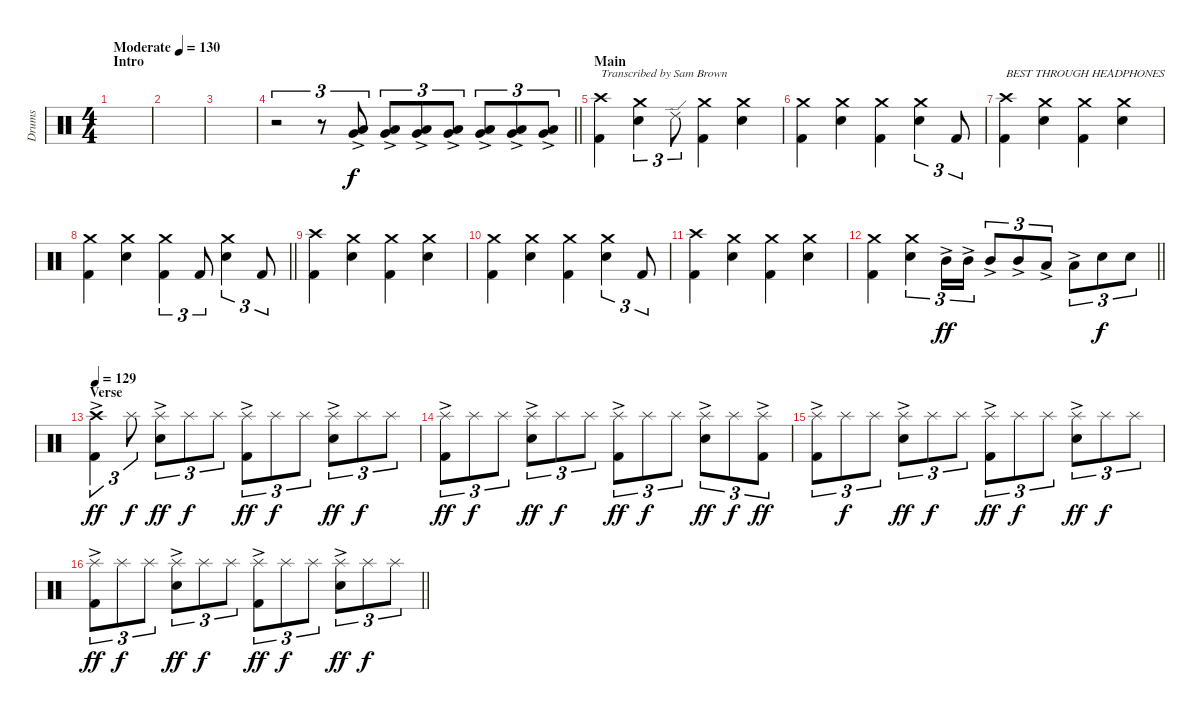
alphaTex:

\track ("Drums" "Drums") {instrument percussion}
\staff {score}
\articulation defaults
\ts (4 4)
\section ("" "Intro")
\tempo (130 "Moderate")
\clef neutral
\ks c
|
|
|
\barLineRight lightlight
r.2{tu (3 2) volume 6} r.8{tu (3 2)} ("Very Low Tom (hit)"{ac} "Low Floor Tom (hit)").8{tu (3 2) volume 15} ("Very Low Tom (hit)"{ac} "Low Floor Tom (hit)").8{tu (3 2)} ("Very Low Tom (hit)"{ac} "Low Floor Tom (hit)").8{tu (3 2)} ("Very Low Tom (hit)"{ac} "Low Floor Tom (hit)"{ac}).8{tu (3 2)} ("Very Low Tom (hit)"{ac} "Low Floor Tom (hit)"{ac}).8{tu (3 2)} ("Very Low Tom (hit)"{ac} "Low Floor Tom (hit)"{ac}).8{tu (3 2)} ("Very Low Tom (hit)"{ac} "Low Floor Tom (hit)"{ac}).8{tu (3 2)} |
\section ("" "Main")
("Kick (hit) 2" "Crash high (hit)").4{txt "Transcribed by Sam Brown" dy f} ("Snare (hit) 2" "Crash medium (hit)").4{tu (3 2)} "Ride (edge) 2".8{tu (3 2)} ("Kick (hit) 2" "Crash medium (hit)").4 ("Snare (hit) 2" "Crash medium (hit)").4 |
("Kick (hit) 2" "Crash medium (hit)").4 ("Snare (hit) 2" "Crash medium (hit)").4 ("Kick (hit) 2" "Crash medium (hit)").4 ("Snare (hit) 2" "Crash medium (hit)").4{tu (3 2)} "Kick (hit) 2".8{tu (3 2)} |
("Kick (hit) 2" "Crash high (hit)").4{txt "BEST THROUGH HEADPHONES"} ("Snare (hit) 2" "Crash medium (hit)").4 ("Kick (hit) 2" "Crash medium (hit)").4 ("Snare (hit) 2" "Crash medium (hit)").4 |
\barLineRight lightlight
("Kick (hit) 2" "Crash medium (hit)").4 ("Snare (hit) 2" "Crash medium (hit)").4 ("Kick (hit) 2" "Crash medium (hit)").4{tu (3 2)} "Kick (hit) 2".8{tu (3 2)} ("Snare (hit) 2" "Crash medium (hit)").4{tu (3 2)} "Kick (hit) 2".8{tu (3 2)} |
\section ("" "")
("Kick (hit) 2" "Crash high (hit)").4 ("Snare (hit) 2" "Crash medium (hit)").4 ("Kick (hit) 2" "Crash medium (hit)").4 ("Snare (hit) 2" "Crash medium (hit)").4 |
("Kick (hit) 2" "Crash medium (hit)").4 ("Snare (hit) 2" "Crash medium (hit)").4 ("Kick (hit) 2" "Crash medium (hit)").4 ("Snare (hit) 2" "Crash medium (hit)").4{tu (3 2)} "Kick (hit) 2".8{tu (3 2)} |
("Kick (hit) 2" "Crash high (hit)").4 ("Snare (hit) 2" "Crash medium (hit)").4 ("Kick (hit) 2" "Crash medium (hit)").4 ("Snare (hit) 2" "Crash medium (hit)").4 |
\barLineRight lightlight
("Kick (hit) 2" "Crash medium (hit)").4 ("Snare (hit) 2" "Crash medium (hit)").4{tu (3 2)} "Mid Tom (hit)"{ac}.16{tu (3 2) dy ff} "Mid Tom (hit)"{ac}.16{tu (3 2)} "Mid Tom (hit)"{ac}.8{tu (3 2)} "Mid Tom (hit)"{ac}.8{tu (3 2)} "Low Tom (hit)"{ac}.8{tu (3 2)} "Low Tom (hit)"{ac}.8{tu (3 2)} "Snare (hit) 2".8{tu (3 2) dy f} "Snare (hit) 2".8{tu (3 2)} |
\section ("" "Verse")
\tempo 129
("Kick (hit) 2"{ac} "Crash high (hit)").4{tu (3 2) dy ff} "Splash (hit)".8{tu (3 2) dy f} ("Snare (hit) 2"{ac} "Splash (hit)").8{tu (3 2) dy ff} "Splash (hit)".8{tu (3 2) dy f} "Splash (hit)".8{tu (3 2)} ("Kick (hit) 2"{ac} "Splash (hit)").8{tu (3 2) dy ff} "Splash (hit)".8{tu (3 2) dy f} "Splash (hit)".8{tu (3 2)} ("Snare (hit) 2"{ac} "Splash (hit)").8{tu (3 2) dy ff} "Splash (hit)".8{tu (3 2) dy f} "Splash (hit)".8{tu (3 2)} |
("Kick (hit) 2"{ac} "Splash (hit)").8{tu (3 2) dy ff} "Splash (hit)".8{tu (3 2) dy f} "Splash (hit)".8{tu (3 2)} ("Snare (hit) 2"{ac} "Splash (hit)").8{tu (3 2) dy ff} "Splash (hit)".8{tu (3 2) dy f} "Splash (hit)".8{tu (3 2)} ("Kick (hit) 2"{ac} "Splash (hit)").8{tu (3 2) dy ff} "Splash (hit)".8{tu (3 2) dy f} "Splash (hit)".8{tu (3 2)} ("Snare (hit) 2"{ac} "Splash (hit)").8{tu (3 2) dy ff} "Splash (hit)".8{tu (3 2) dy f} ("Kick (hit) 2"{ac} "Splash (hit)").8{tu (3 2) dy ff} |
("Kick (hit) 2"{ac} "Splash (hit)").8{tu (3 2)} "Splash (hit)".8{tu (3 2) dy f} "Splash (hit)".8{tu (3 2)} ("Snare (hit) 2"{ac} "Splash (hit)").8{tu (3 2) dy ff} "Splash (hit)".8{tu (3 2) dy f} "Splash (hit)".8{tu (3 2)} ("Kick (hit) 2"{ac} "Splash (hit)").8{tu (3 2) dy ff} "Splash (hit)".8{tu (3 2) dy f} "Splash (hit)".8{tu (3 2)} ("Snare (hit) 2"{ac} "Splash (hit)").8{tu (3 2) dy ff} "Splash (hit)".8{tu (3 2) dy f} "Splash (hit)".8{tu (3 2)} |
\barLineRight lightlight
("Kick (hit) 2"{ac} "Splash (hit)").8{tu (3 2) dy ff} "Splash (hit)".8{tu (3 2) dy f} "Splash (hit)".8{tu (3 2)} ("Snare (hit) 2"{ac} "Splash (hit)").8{tu (3 2) dy ff} "Splash (hit)".8{tu (3 2) dy f} "Splash (hit)".8{tu (3 2)} ("Kick (hit) 2"{ac} "Splash (hit)").8{tu (3 2) dy ff} "Splash (hit)".8{tu (3 2) dy f} "Splash (hit)".8{tu (3 2)} ("Snare (hit) 2"{ac} "Splash (hit)").8{tu (3 2) dy ff} "Splash (hit)".8{tu (3 2) dy f} "Splash (hit)".8{tu (3 2)}
